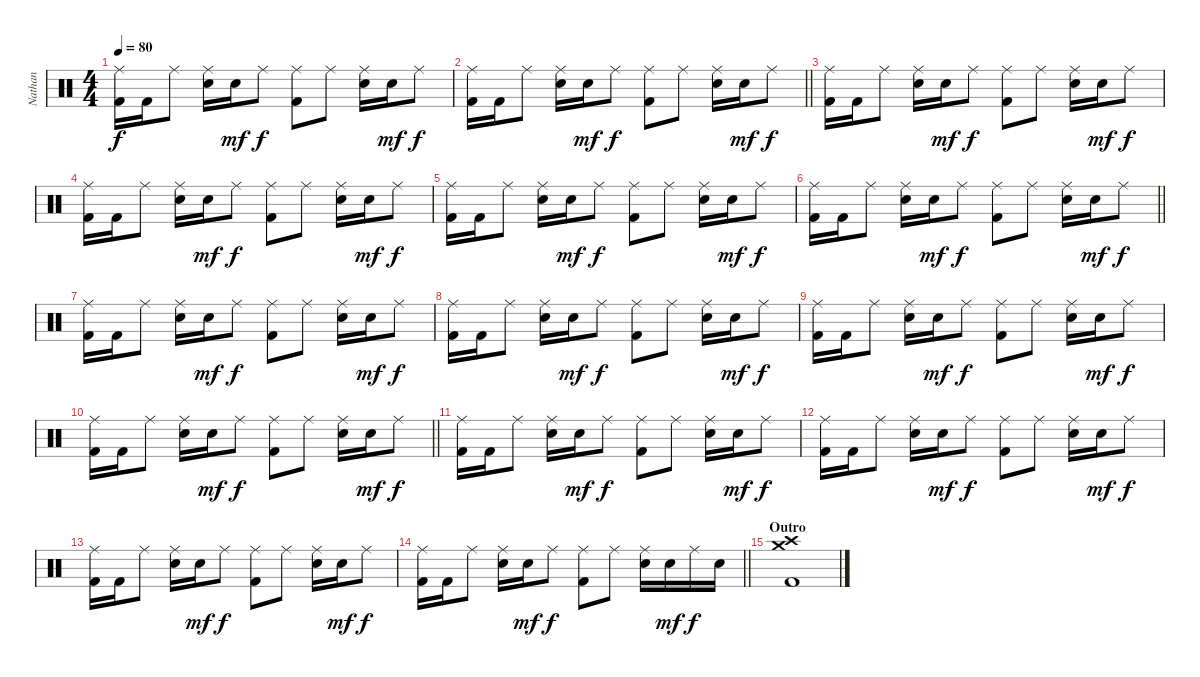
\track ("Nathan" "Nathan") {instrument percussion}
\staff {score}
\articulation defaults
\ts (4 4)
\tempo 80
\clef neutral
\ks c
("Ride (middle)" "Kick (hit) 2").16{dy f} "Kick (hit) 2".16 "Ride (middle)".8 ("Ride (middle)" "Electric Snare (hit)").16 "Electric Snare (hit)".16{dy mf} "Ride (middle)".8{dy f} ("Ride (middle)" "Kick (hit) 2").8 "Ride (middle)".8 ("Ride (middle)" "Electric Snare (hit)").16 "Electric Snare (hit)".16{dy mf} "Ride (middle)".8{dy f} |
\barLineRight lightlight
("Ride (middle)" "Kick (hit) 2").16 "Kick (hit) 2".16 "Ride (middle)".8 ("Ride (middle)" "Electric Snare (hit)").16 "Electric Snare (hit)".16{dy mf} "Ride (middle)".8{dy f} ("Ride (middle)" "Kick (hit) 2").8 "Ride (middle)".8 ("Ride (middle)" "Electric Snare (hit)").16 "Electric Snare (hit)".16{dy mf} "Ride (middle)".8{dy f} |
("Ride (middle)" "Kick (hit) 2").16 "Kick (hit) 2".16 "Ride (middle)".8 ("Ride (middle)" "Electric Snare (hit)").16 "Electric Snare (hit)".16{dy mf} "Ride (middle)".8{dy f} ("Ride (middle)" "Kick (hit) 2").8 "Ride (middle)".8 ("Ride (middle)" "Electric Snare (hit)").16 "Electric Snare (hit)".16{dy mf} "Ride (middle)".8{dy f} |
("Ride (middle)" "Kick (hit) 2").16 "Kick (hit) 2".16 "Ride (middle)".8 ("Ride (middle)" "Electric Snare (hit)").16 "Electric Snare (hit)".16{dy mf} "Ride (middle)".8{dy f} ("Ride (middle)" "Kick (hit) 2").8 "Ride (middle)".8 ("Ride (middle)" "Electric Snare (hit)").16 "Electric Snare (hit)".16{dy mf} "Ride (middle)".8{dy f} |
("Ride (middle)" "Kick (hit) 2").16 "Kick (hit) 2".16 "Ride (middle)".8 ("Ride (middle)" "Electric Snare (hit)").16 "Electric Snare (hit)".16{dy mf} "Ride (middle)".8{dy f} ("Ride (middle)" "Kick (hit) 2").8 "Ride (middle)".8 ("Ride (middle)" "Electric Snare (hit)").16 "Electric Snare (hit)".16{dy mf} "Ride (middle)".8{dy f} |
\barLineRight lightlight
("Ride (middle)" "Kick (hit) 2").16 "Kick (hit) 2".16 "Ride (middle)".8 ("Ride (middle)" "Electric Snare (hit)").16 "Electric Snare (hit)".16{dy mf} "Ride (middle)".8{dy f} ("Ride (middle)" "Kick (hit) 2").8 "Ride (middle)".8 ("Ride (middle)" "Electric Snare (hit)").16 "Electric Snare (hit)".16{dy mf} "Ride (middle)".8{dy f} |
\section ("" "")
("Ride (middle)" "Kick (hit) 2").16 "Kick (hit) 2".16 "Ride (middle)".8 ("Ride (middle)" "Electric Snare (hit)").16 "Electric Snare (hit)".16{dy mf} "Ride (middle)".8{dy f} ("Ride (middle)" "Kick (hit) 2").8 "Ride (middle)".8 ("Ride (middle)" "Electric Snare (hit)").16 "Electric Snare (hit)".16{dy mf} "Ride (middle)".8{dy f} |
("Ride (middle)" "Kick (hit) 2").16 "Kick (hit) 2".16 "Ride (middle)".8 ("Ride (middle)" "Electric Snare (hit)").16 "Electric Snare (hit)".16{dy mf} "Ride (middle)".8{dy f} ("Ride (middle)" "Kick (hit) 2").8 "Ride (middle)".8 ("Ride (middle)" "Electric Snare (hit)").16 "Electric Snare (hit)".16{dy mf} "Ride (middle)".8{dy f} |
("Ride (middle)" "Kick (hit) 2").16 "Kick (hit) 2".16 "Ride (middle)".8 ("Ride (middle)" "Electric Snare (hit)").16 "Electric Snare (hit)".16{dy mf} "Ride (middle)".8{dy f} ("Ride (middle)" "Kick (hit) 2").8 "Ride (middle)".8 ("Ride (middle)" "Electric Snare (hit)").16 "Electric Snare (hit)".16{dy mf} "Ride (middle)".8{dy f} |
\barLineRight lightlight
("Ride (middle)" "Kick (hit) 2").16 "Kick (hit) 2".16 "Ride (middle)".8 ("Ride (middle)" "Electric Snare (hit)").16 "Electric Snare (hit)".16{dy mf} "Ride (middle)".8{dy f} ("Ride (middle)" "Kick (hit) 2").8 "Ride (middle)".8 ("Ride (middle)" "Electric Snare (hit)").16 "Electric Snare (hit)".16{dy mf} "Ride (middle)".8{dy f} |
("Ride (middle)" "Kick (hit) 2").16 "Kick (hit) 2".16 "Ride (middle)".8 ("Ride (middle)" "Electric Snare (hit)").16 "Electric Snare (hit)".16{dy mf} "Ride (middle)".8{dy f} ("Ride (middle)" "Kick (hit) 2").8 "Ride (middle)".8 ("Ride (middle)" "Electric Snare (hit)").16 "Electric Snare (hit)".16{dy mf} "Ride (middle)".8{dy f} |
("Ride (middle)" "Kick (hit) 2").16 "Kick (hit) 2".16 "Ride (middle)".8 ("Ride (middle)" "Electric Snare (hit)").16 "Electric Snare (hit)".16{dy mf} "Ride (middle)".8{dy f} ("Ride (middle)" "Kick (hit) 2").8 "Ride (middle)".8 ("Ride (middle)" "Electric Snare (hit)").16 "Electric Snare (hit)".16{dy mf} "Ride (middle)".8{dy f} |
("Ride (middle)" "Kick (hit) 2").16 "Kick (hit) 2".16 "Ride (middle)".8 ("Ride (middle)" "Electric Snare (hit)").16 "Electric Snare (hit)".16{dy mf} "Ride (middle)".8{dy f} ("Ride (middle)" "Kick (hit) 2").8 "Ride (middle)".8 ("Ride (middle)" "Electric Snare (hit)").16 "Electric Snare (hit)".16{dy mf} "Ride (middle)".8{dy f} |
\barLineRight lightlight
("Ride (middle)" "Kick (hit) 2").16 "Kick (hit) 2".16 "Ride (middle)".8 ("Ride (middle)" "Electric Snare (hit)").16 "Electric Snare (hit)".16{dy mf} "Ride (middle)".8{dy f} ("Ride (middle)" "Kick (hit) 2").8 "Ride (middle)".8 ("Ride (middle)" "Electric Snare (hit)").16 "Electric Snare (hit)".16{dy mf} "Ride (middle)".16{dy f} "Electric Snare (hit)".16 |
\section ("" "Outro")
("Crash high (hit)" "Crash medium (hit)" "Kick (hit) 2").1
